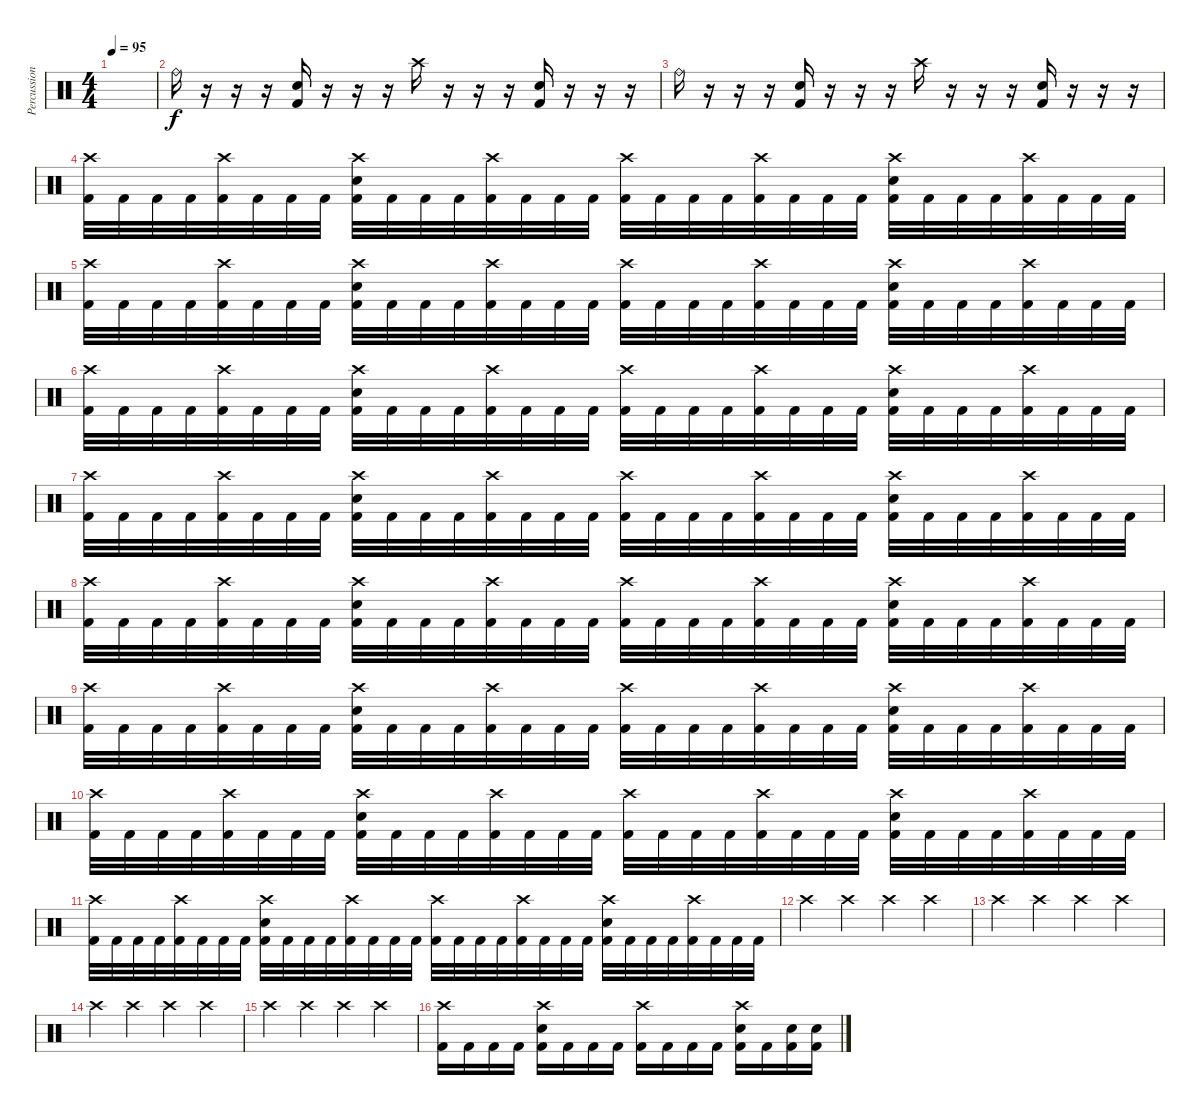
\track ("Percussion" "Percussion") {instrument percussion}
\staff {score}
\articulation defaults
\ts (4 4)
\tempo 95
\clef neutral
\ks c
|
"Ride (bell)".16 r.16 r.16 r.16 ("Snare (hit) 2" "Kick (hit) 2").16 r.16 r.16 r.16 "Crash high (hit)".16 r.16 r.16 r.16 ("Snare (hit) 2" "Kick (hit) 2").16 r.16 r.16 r.16 |
"Ride (bell)".16 r.16 r.16 r.16 ("Snare (hit) 2" "Kick (hit) 2").16 r.16 r.16 r.16 "Crash high (hit)".16 r.16 r.16 r.16 ("Snare (hit) 2" "Kick (hit) 2").16 r.16 r.16 r.16 |
("Crash high (hit)" "Kick (hit) 2").32 "Kick (hit) 2".32 "Kick (hit) 2".32 "Kick (hit) 2".32 ("Crash high (hit)" "Kick (hit) 2").32 "Kick (hit) 2".32 "Kick (hit) 2".32 "Kick (hit) 2".32 ("Crash high (hit)" "Snare (hit) 2" "Kick (hit) 2").32 "Kick (hit) 2".32 "Kick (hit) 2".32 "Kick (hit) 2".32 ("Crash high (hit)" "Kick (hit) 2").32 "Kick (hit) 2".32 "Kick (hit) 2".32 "Kick (hit) 2".32 ("Crash high (hit)" "Kick (hit) 2").32 "Kick (hit) 2".32 "Kick (hit) 2".32 "Kick (hit) 2".32 ("Crash high (hit)" "Kick (hit) 2").32 "Kick (hit) 2".32 "Kick (hit) 2".32 "Kick (hit) 2".32 ("Crash high (hit)" "Snare (hit) 2" "Kick (hit) 2").32 "Kick (hit) 2".32 "Kick (hit) 2".32 "Kick (hit) 2".32 ("Crash high (hit)" "Kick (hit) 2").32 "Kick (hit) 2".32 "Kick (hit) 2".32 "Kick (hit) 2".32 |
("Crash high (hit)" "Kick (hit) 2").32 "Kick (hit) 2".32 "Kick (hit) 2".32 "Kick (hit) 2".32 ("Crash high (hit)" "Kick (hit) 2").32 "Kick (hit) 2".32 "Kick (hit) 2".32 "Kick (hit) 2".32 ("Crash high (hit)" "Snare (hit) 2" "Kick (hit) 2").32 "Kick (hit) 2".32 "Kick (hit) 2".32 "Kick (hit) 2".32 ("Crash high (hit)" "Kick (hit) 2").32 "Kick (hit) 2".32 "Kick (hit) 2".32 "Kick (hit) 2".32 ("Crash high (hit)" "Kick (hit) 2").32 "Kick (hit) 2".32 "Kick (hit) 2".32 "Kick (hit) 2".32 ("Crash high (hit)" "Kick (hit) 2").32 "Kick (hit) 2".32 "Kick (hit) 2".32 "Kick (hit) 2".32 ("Crash high (hit)" "Snare (hit) 2" "Kick (hit) 2").32 "Kick (hit) 2".32 "Kick (hit) 2".32 "Kick (hit) 2".32 ("Crash high (hit)" "Kick (hit) 2").32 "Kick (hit) 2".32 "Kick (hit) 2".32 "Kick (hit) 2".32 |
("Crash high (hit)" "Kick (hit) 2").32 "Kick (hit) 2".32 "Kick (hit) 2".32 "Kick (hit) 2".32 ("Crash high (hit)" "Kick (hit) 2").32 "Kick (hit) 2".32 "Kick (hit) 2".32 "Kick (hit) 2".32 ("Crash high (hit)" "Snare (hit) 2" "Kick (hit) 2").32 "Kick (hit) 2".32 "Kick (hit) 2".32 "Kick (hit) 2".32 ("Crash high (hit)" "Kick (hit) 2").32 "Kick (hit) 2".32 "Kick (hit) 2".32 "Kick (hit) 2".32 ("Crash high (hit)" "Kick (hit) 2").32 "Kick (hit) 2".32 "Kick (hit) 2".32 "Kick (hit) 2".32 ("Crash high (hit)" "Kick (hit) 2").32 "Kick (hit) 2".32 "Kick (hit) 2".32 "Kick (hit) 2".32 ("Crash high (hit)" "Snare (hit) 2" "Kick (hit) 2").32 "Kick (hit) 2".32 "Kick (hit) 2".32 "Kick (hit) 2".32 ("Crash high (hit)" "Kick (hit) 2").32 "Kick (hit) 2".32 "Kick (hit) 2".32 "Kick (hit) 2".32 |
("Crash high (hit)" "Kick (hit) 2").32 "Kick (hit) 2".32 "Kick (hit) 2".32 "Kick (hit) 2".32 ("Crash high (hit)" "Kick (hit) 2").32 "Kick (hit) 2".32 "Kick (hit) 2".32 "Kick (hit) 2".32 ("Crash high (hit)" "Snare (hit) 2" "Kick (hit) 2").32 "Kick (hit) 2".32 "Kick (hit) 2".32 "Kick (hit) 2".32 ("Crash high (hit)" "Kick (hit) 2").32 "Kick (hit) 2".32 "Kick (hit) 2".32 "Kick (hit) 2".32 ("Crash high (hit)" "Kick (hit) 2").32 "Kick (hit) 2".32 "Kick (hit) 2".32 "Kick (hit) 2".32 ("Crash high (hit)" "Kick (hit) 2").32 "Kick (hit) 2".32 "Kick (hit) 2".32 "Kick (hit) 2".32 ("Crash high (hit)" "Snare (hit) 2" "Kick (hit) 2").32 "Kick (hit) 2".32 "Kick (hit) 2".32 "Kick (hit) 2".32 ("Crash high (hit)" "Kick (hit) 2").32 "Kick (hit) 2".32 "Kick (hit) 2".32 "Kick (hit) 2".32 |
("Crash high (hit)" "Kick (hit) 2").32 "Kick (hit) 2".32 "Kick (hit) 2".32 "Kick (hit) 2".32 ("Crash high (hit)" "Kick (hit) 2").32 "Kick (hit) 2".32 "Kick (hit) 2".32 "Kick (hit) 2".32 ("Crash high (hit)" "Snare (hit) 2" "Kick (hit) 2").32 "Kick (hit) 2".32 "Kick (hit) 2".32 "Kick (hit) 2".32 ("Crash high (hit)" "Kick (hit) 2").32 "Kick (hit) 2".32 "Kick (hit) 2".32 "Kick (hit) 2".32 ("Crash high (hit)" "Kick (hit) 2").32 "Kick (hit) 2".32 "Kick (hit) 2".32 "Kick (hit) 2".32 ("Crash high (hit)" "Kick (hit) 2").32 "Kick (hit) 2".32 "Kick (hit) 2".32 "Kick (hit) 2".32 ("Crash high (hit)" "Snare (hit) 2" "Kick (hit) 2").32 "Kick (hit) 2".32 "Kick (hit) 2".32 "Kick (hit) 2".32 ("Crash high (hit)" "Kick (hit) 2").32 "Kick (hit) 2".32 "Kick (hit) 2".32 "Kick (hit) 2".32 |
("Crash high (hit)" "Kick (hit) 2").32 "Kick (hit) 2".32 "Kick (hit) 2".32 "Kick (hit) 2".32 ("Crash high (hit)" "Kick (hit) 2").32 "Kick (hit) 2".32 "Kick (hit) 2".32 "Kick (hit) 2".32 ("Crash high (hit)" "Snare (hit) 2" "Kick (hit) 2").32 "Kick (hit) 2".32 "Kick (hit) 2".32 "Kick (hit) 2".32 ("Crash high (hit)" "Kick (hit) 2").32 "Kick (hit) 2".32 "Kick (hit) 2".32 "Kick (hit) 2".32 ("Crash high (hit)" "Kick (hit) 2").32 "Kick (hit) 2".32 "Kick (hit) 2".32 "Kick (hit) 2".32 ("Crash high (hit)" "Kick (hit) 2").32 "Kick (hit) 2".32 "Kick (hit) 2".32 "Kick (hit) 2".32 ("Crash high (hit)" "Snare (hit) 2" "Kick (hit) 2").32 "Kick (hit) 2".32 "Kick (hit) 2".32 "Kick (hit) 2".32 ("Crash high (hit)" "Kick (hit) 2").32 "Kick (hit) 2".32 "Kick (hit) 2".32 "Kick (hit) 2".32 |
("Crash high (hit)" "Kick (hit) 2").32 "Kick (hit) 2".32 "Kick (hit) 2".32 "Kick (hit) 2".32 ("Crash high (hit)" "Kick (hit) 2").32 "Kick (hit) 2".32 "Kick (hit) 2".32 "Kick (hit) 2".32 ("Crash high (hit)" "Snare (hit) 2" "Kick (hit) 2").32 "Kick (hit) 2".32 "Kick (hit) 2".32 "Kick (hit) 2".32 ("Crash high (hit)" "Kick (hit) 2").32 "Kick (hit) 2".32 "Kick (hit) 2".32 "Kick (hit) 2".32 ("Crash high (hit)" "Kick (hit) 2").32 "Kick (hit) 2".32 "Kick (hit) 2".32 "Kick (hit) 2".32 ("Crash high (hit)" "Kick (hit) 2").32 "Kick (hit) 2".32 "Kick (hit) 2".32 "Kick (hit) 2".32 ("Crash high (hit)" "Snare (hit) 2" "Kick (hit) 2").32 "Kick (hit) 2".32 "Kick (hit) 2".32 "Kick (hit) 2".32 ("Crash high (hit)" "Kick (hit) 2").32 "Kick (hit) 2".32 "Kick (hit) 2".32 "Kick (hit) 2".32 |
("Crash high (hit)" "Kick (hit) 2").32 "Kick (hit) 2".32 "Kick (hit) 2".32 "Kick (hit) 2".32 ("Crash high (hit)" "Kick (hit) 2").32 "Kick (hit) 2".32 "Kick (hit) 2".32 "Kick (hit) 2".32 ("Crash high (hit)" "Snare (hit) 2" "Kick (hit) 2").32 "Kick (hit) 2".32 "Kick (hit) 2".32 "Kick (hit) 2".32 ("Crash high (hit)" "Kick (hit) 2").32 "Kick (hit) 2".32 "Kick (hit) 2".32 "Kick (hit) 2".32 ("Crash high (hit)" "Kick (hit) 2").32 "Kick (hit) 2".32 "Kick (hit) 2".32 "Kick (hit) 2".32 ("Crash high (hit)" "Kick (hit) 2").32 "Kick (hit) 2".32 "Kick (hit) 2".32 "Kick (hit) 2".32 ("Crash high (hit)" "Snare (hit) 2" "Kick (hit) 2").32 "Kick (hit) 2".32 "Kick (hit) 2".32 "Kick (hit) 2".32 ("Crash high (hit)" "Kick (hit) 2").32 "Kick (hit) 2".32 "Kick (hit) 2".32 "Kick (hit) 2".32 |
"Crash high (hit)".4 "Crash high (hit)".4 "Crash high (hit)".4 "Crash high (hit)".4 |
"Crash high (hit)".4 "Crash high (hit)".4 "Crash high (hit)".4 "Crash high (hit)".4 |
"Crash high (hit)".4 "Crash high (hit)".4 "Crash high (hit)".4 "Crash high (hit)".4 |
"Crash high (hit)".4 "Crash high (hit)".4 "Crash high (hit)".4 "Crash high (hit)".4 |
("Crash high (hit)" "Kick (hit) 2").16 "Kick (hit) 2".16 "Kick (hit) 2".16 "Kick (hit) 2".16 ("Crash high (hit)" "Snare (hit) 2" "Kick (hit) 2").16 "Kick (hit) 2".16 "Kick (hit) 2".16 "Kick (hit) 2".16 ("Crash high (hit)" "Kick (hit) 2").16 "Kick (hit) 2".16 "Kick (hit) 2".16 "Kick (hit) 2".16 ("Crash high (hit)" "Snare (hit) 2" "Kick (hit) 2").16 "Kick (hit) 2".16 ("Snare (hit) 2" "Kick (hit) 2").16 ("Snare (hit) 2" "Kick (hit) 2").16
